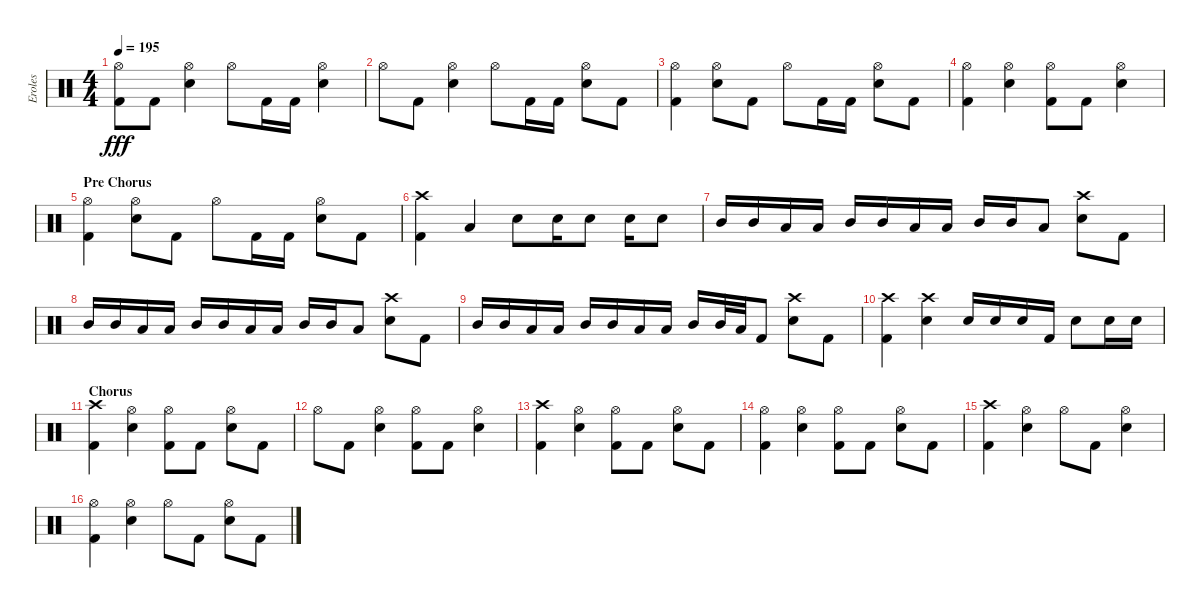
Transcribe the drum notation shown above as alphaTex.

\track ("Eroles" "Eroles") {instrument percussion}
\staff {score}
\articulation defaults
\ts (4 4)
\tempo 195
\clef neutral
\ks c
("Hi-Hat (open)" "Kick (hit) 2").8{dy fff} "Kick (hit) 2".8 ("Hi-Hat (open)" "Snare (hit) 2").4 "Hi-Hat (open)".8 "Kick (hit) 2".16 "Kick (hit) 2".16 ("Hi-Hat (open)" "Snare (hit) 2").4 |
"Hi-Hat (open)".8 "Kick (hit) 2".8 ("Hi-Hat (open)" "Snare (hit) 2").4 "Hi-Hat (open)".8 "Kick (hit) 2".16 "Kick (hit) 2".16 ("Hi-Hat (open)" "Snare (hit) 2").8 "Kick (hit) 2".8 |
("Hi-Hat (open)" "Kick (hit) 2").4 ("Hi-Hat (open)" "Snare (hit) 2").8 "Kick (hit) 2".8 "Hi-Hat (open)".8 "Kick (hit) 2".16 "Kick (hit) 2".16 ("Hi-Hat (open)" "Snare (hit) 2").8 "Kick (hit) 2".8 |
("Hi-Hat (open)" "Kick (hit) 2").4 ("Hi-Hat (open)" "Snare (hit) 2").4 ("Hi-Hat (open)" "Kick (hit) 2").8 "Kick (hit) 2".8 ("Hi-Hat (open)" "Snare (hit) 2").4 |
\section ("" "Pre Chorus")
("Hi-Hat (open)" "Kick (hit) 2").4 ("Hi-Hat (open)" "Snare (hit) 2").8 "Kick (hit) 2".8 "Hi-Hat (open)".8 "Kick (hit) 2".16 "Kick (hit) 2".16 ("Hi-Hat (open)" "Snare (hit) 2").8 "Kick (hit) 2".8 |
("Crash high (hit)" "Kick (hit) 2").4 "Low Tom (hit)".4 "Snare (hit) 2".8 "Snare (hit) 2".16 "Snare (hit) 2".8 "Snare (hit) 2".16 "Snare (hit) 2".8 |
"Mid Tom (hit)".16 "Mid Tom (hit)".16 "Low Tom (hit)".16 "Low Tom (hit)".16 "Mid Tom (hit)".16 "Mid Tom (hit)".16 "Low Tom (hit)".16 "Low Tom (hit)".16 "Mid Tom (hit)".16 "Mid Tom (hit)".16 "Low Tom (hit)".8 ("Crash high (hit)" "Snare (hit) 2").8 "Kick (hit) 2".8 |
"Mid Tom (hit)".16 "Mid Tom (hit)".16 "Low Tom (hit)".16 "Low Tom (hit)".16 "Mid Tom (hit)".16 "Mid Tom (hit)".16 "Low Tom (hit)".16 "Low Tom (hit)".16 "Mid Tom (hit)".16 "Mid Tom (hit)".16 "Low Tom (hit)".8 ("Crash high (hit)" "Snare (hit) 2").8 "Kick (hit) 2".8 |
"Mid Tom (hit)".16 "Mid Tom (hit)".16 "Low Tom (hit)".16 "Low Tom (hit)".16 "Mid Tom (hit)".16 "Mid Tom (hit)".16 "Low Tom (hit)".16 "Low Tom (hit)".16 "Mid Tom (hit)".16 "Mid Tom (hit)".32 "Low Tom (hit)".32 "Kick (hit) 2".8 ("Crash high (hit)" "Snare (hit) 2").8 "Kick (hit) 2".8 |
("Crash high (hit)" "Kick (hit) 2").4 ("Crash high (hit)" "Snare (hit) 2").4 "Snare (hit) 2".16 "Snare (hit) 2".16 "Snare (hit) 2".16 "Kick (hit) 2".16 "Snare (hit) 2".8 "Snare (hit) 2".16 "Snare (hit) 2".16 |
\section ("" "Chorus")
("Crash high (hit)" "Kick (hit) 2").4 ("Hi-Hat (open)" "Snare (hit) 2").4 ("Hi-Hat (open)" "Kick (hit) 2").8 "Kick (hit) 2".8 ("Hi-Hat (open)" "Snare (hit) 2").8 "Kick (hit) 2".8 |
"Hi-Hat (open)".8 "Kick (hit) 2".8 ("Hi-Hat (open)" "Snare (hit) 2").4 ("Hi-Hat (open)" "Kick (hit) 2").8 "Kick (hit) 2".8 ("Hi-Hat (open)" "Snare (hit) 2").4 |
("Crash high (hit)" "Kick (hit) 2").4 ("Hi-Hat (open)" "Snare (hit) 2").4 ("Hi-Hat (open)" "Kick (hit) 2").8 "Kick (hit) 2".8 ("Hi-Hat (open)" "Snare (hit) 2").8 "Kick (hit) 2".8 |
("Hi-Hat (open)" "Kick (hit) 2").4 ("Hi-Hat (open)" "Snare (hit) 2").4 ("Hi-Hat (open)" "Kick (hit) 2").8 "Kick (hit) 2".8 ("Hi-Hat (open)" "Snare (hit) 2").8 "Kick (hit) 2".8 |
("Crash high (hit)" "Kick (hit) 2").4 ("Hi-Hat (open)" "Snare (hit) 2").4 "Hi-Hat (open)".8 "Kick (hit) 2".8 ("Hi-Hat (open)" "Snare (hit) 2").4 |
("Hi-Hat (open)" "Kick (hit) 2").4 ("Hi-Hat (open)" "Snare (hit) 2").4 "Hi-Hat (open)".8 "Kick (hit) 2".8 ("Hi-Hat (open)" "Snare (hit) 2").8 "Kick (hit) 2".8
